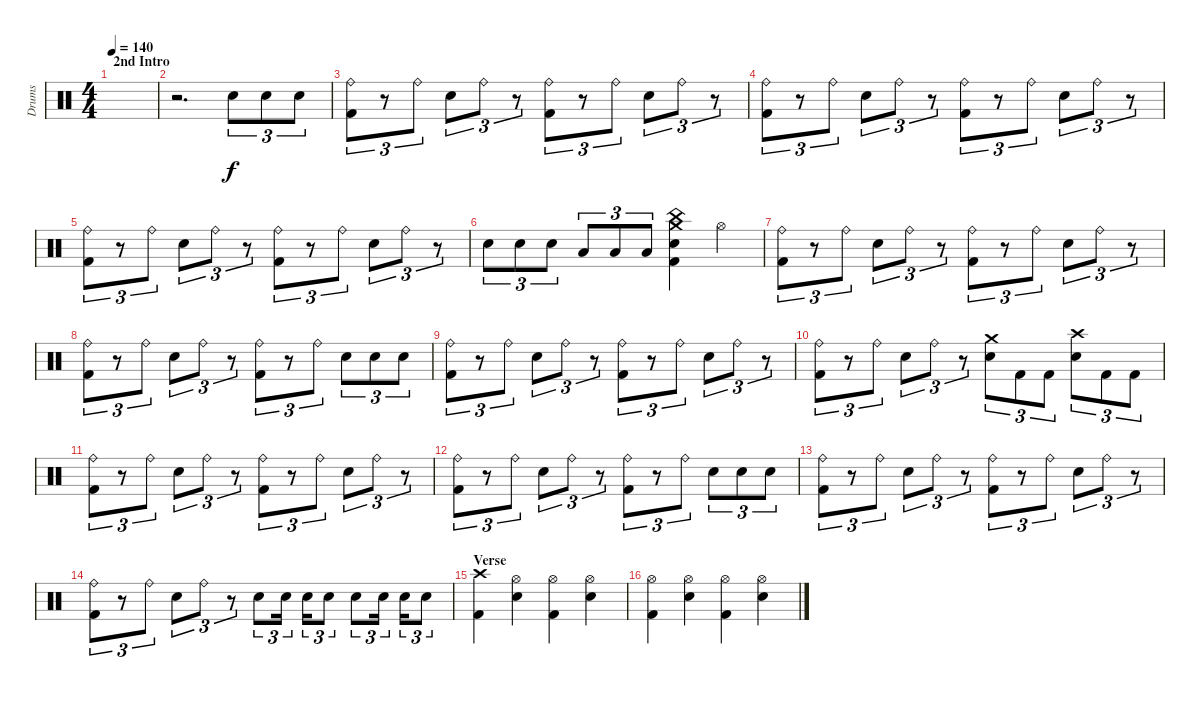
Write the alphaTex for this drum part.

\track ("Drums" "Drums") {instrument percussion}
\staff {score}
\articulation defaults
\ts (4 4)
\section ("" "2nd Intro")
\tempo 140
\clef neutral
\ks c
|
r.2{d} "Electric Snare (hit)".8{tu (3 2)} "Electric Snare (hit)".8{tu (3 2)} "Electric Snare (hit)".8{tu (3 2)} |
("Ride (bell)" "Kick (hit) 2").8{tu (3 2)} r.8{tu (3 2)} "Ride (bell)".8{tu (3 2)} "Electric Snare (hit)".8{tu (3 2)} "Ride (bell)".8{tu (3 2)} r.8{tu (3 2)} ("Ride (bell)" "Kick (hit) 2").8{tu (3 2)} r.8{tu (3 2)} "Ride (bell)".8{tu (3 2)} "Electric Snare (hit)".8{tu (3 2)} "Ride (bell)".8{tu (3 2)} r.8{tu (3 2)} |
("Ride (bell)" "Kick (hit) 2").8{tu (3 2)} r.8{tu (3 2)} "Ride (bell)".8{tu (3 2)} "Electric Snare (hit)".8{tu (3 2)} "Ride (bell)".8{tu (3 2)} r.8{tu (3 2)} ("Ride (bell)" "Kick (hit) 2").8{tu (3 2)} r.8{tu (3 2)} "Ride (bell)".8{tu (3 2)} "Electric Snare (hit)".8{tu (3 2)} "Ride (bell)".8{tu (3 2)} r.8{tu (3 2)} |
("Ride (bell)" "Kick (hit) 2").8{tu (3 2)} r.8{tu (3 2)} "Ride (bell)".8{tu (3 2)} "Electric Snare (hit)".8{tu (3 2)} "Ride (bell)".8{tu (3 2)} r.8{tu (3 2)} ("Ride (bell)" "Kick (hit) 2").8{tu (3 2)} r.8{tu (3 2)} "Ride (bell)".8{tu (3 2)} "Electric Snare (hit)".8{tu (3 2)} "Ride (bell)".8{tu (3 2)} r.8{tu (3 2)} |
"Electric Snare (hit)".8{tu (3 2)} "Electric Snare (hit)".8{tu (3 2)} "Electric Snare (hit)".8{tu (3 2)} "Low Tom (hit)".8{tu (3 2)} "Low Tom (hit)".8{tu (3 2)} "Low Tom (hit)".8{tu (3 2)} ("China (hit)" "Crash medium (hit)" "Electric Snare (hit)" "Kick (hit) 2").4 "Hi-Hat (open)".4 |
("Ride (bell)" "Kick (hit) 2").8{tu (3 2)} r.8{tu (3 2)} "Ride (bell)".8{tu (3 2)} "Electric Snare (hit)".8{tu (3 2)} "Ride (bell)".8{tu (3 2)} r.8{tu (3 2)} ("Ride (bell)" "Kick (hit) 2").8{tu (3 2)} r.8{tu (3 2)} "Ride (bell)".8{tu (3 2)} "Electric Snare (hit)".8{tu (3 2)} "Ride (bell)".8{tu (3 2)} r.8{tu (3 2)} |
("Ride (bell)" "Kick (hit) 2").8{tu (3 2)} r.8{tu (3 2)} "Ride (bell)".8{tu (3 2)} "Electric Snare (hit)".8{tu (3 2)} "Ride (bell)".8{tu (3 2)} r.8{tu (3 2)} ("Ride (bell)" "Kick (hit) 2").8{tu (3 2)} r.8{tu (3 2)} "Ride (bell)".8{tu (3 2)} "Electric Snare (hit)".8{tu (3 2)} "Electric Snare (hit)".8{tu (3 2)} "Electric Snare (hit)".8{tu (3 2)} |
("Ride (bell)" "Kick (hit) 2").8{tu (3 2)} r.8{tu (3 2)} "Ride (bell)".8{tu (3 2)} "Electric Snare (hit)".8{tu (3 2)} "Ride (bell)".8{tu (3 2)} r.8{tu (3 2)} ("Ride (bell)" "Kick (hit) 2").8{tu (3 2)} r.8{tu (3 2)} "Ride (bell)".8{tu (3 2)} "Electric Snare (hit)".8{tu (3 2)} "Ride (bell)".8{tu (3 2)} r.8{tu (3 2)} |
("Ride (bell)" "Kick (hit) 2").8{tu (3 2)} r.8{tu (3 2)} "Ride (bell)".8{tu (3 2)} "Electric Snare (hit)".8{tu (3 2)} "Ride (bell)".8{tu (3 2)} r.8{tu (3 2)} ("Crash medium (hit)" "Electric Snare (hit)").8{tu (3 2)} "Kick (hit) 2".8{tu (3 2)} "Kick (hit) 2".8{tu (3 2)} ("Crash high (hit)" "Electric Snare (hit)").8{tu (3 2)} "Kick (hit) 2".8{tu (3 2)} "Kick (hit) 2".8{tu (3 2)} |
("Ride (bell)" "Kick (hit) 2").8{tu (3 2)} r.8{tu (3 2)} "Ride (bell)".8{tu (3 2)} "Electric Snare (hit)".8{tu (3 2)} "Ride (bell)".8{tu (3 2)} r.8{tu (3 2)} ("Ride (bell)" "Kick (hit) 2").8{tu (3 2)} r.8{tu (3 2)} "Ride (bell)".8{tu (3 2)} "Electric Snare (hit)".8{tu (3 2)} "Ride (bell)".8{tu (3 2)} r.8{tu (3 2)} |
("Ride (bell)" "Kick (hit) 2").8{tu (3 2)} r.8{tu (3 2)} "Ride (bell)".8{tu (3 2)} "Electric Snare (hit)".8{tu (3 2)} "Ride (bell)".8{tu (3 2)} r.8{tu (3 2)} ("Ride (bell)" "Kick (hit) 2").8{tu (3 2)} r.8{tu (3 2)} "Ride (bell)".8{tu (3 2)} "Electric Snare (hit)".8{tu (3 2)} "Electric Snare (hit)".8{tu (3 2)} "Electric Snare (hit)".8{tu (3 2)} |
("Ride (bell)" "Kick (hit) 2").8{tu (3 2)} r.8{tu (3 2)} "Ride (bell)".8{tu (3 2)} "Electric Snare (hit)".8{tu (3 2)} "Ride (bell)".8{tu (3 2)} r.8{tu (3 2)} ("Ride (bell)" "Kick (hit) 2").8{tu (3 2)} r.8{tu (3 2)} "Ride (bell)".8{tu (3 2)} "Electric Snare (hit)".8{tu (3 2)} "Ride (bell)".8{tu (3 2)} r.8{tu (3 2)} |
("Ride (bell)" "Kick (hit) 2").8{tu (3 2)} r.8{tu (3 2)} "Ride (bell)".8{tu (3 2)} "Electric Snare (hit)".8{tu (3 2)} "Ride (bell)".8{tu (3 2)} r.8{tu (3 2)} "Electric Snare (hit)".8{tu (3 2)} "Electric Snare (hit)".16{tu (3 2)} "Electric Snare (hit)".16{tu (3 2)} "Electric Snare (hit)".8{tu (3 2)} "Electric Snare (hit)".8{tu (3 2)} "Electric Snare (hit)".16{tu (3 2)} "Electric Snare (hit)".16{tu (3 2)} "Electric Snare (hit)".8{tu (3 2)} |
\section ("" "Verse")
("Crash high (hit)" "Kick (hit) 2").4 ("Hi-Hat (open)" "Electric Snare (hit)").4 ("Hi-Hat (open)" "Kick (hit) 2").4 ("Hi-Hat (open)" "Electric Snare (hit)").4 |
("Hi-Hat (open)" "Kick (hit) 2").4 ("Hi-Hat (open)" "Electric Snare (hit)").4 ("Hi-Hat (open)" "Kick (hit) 2").4 ("Hi-Hat (open)" "Electric Snare (hit)").4
